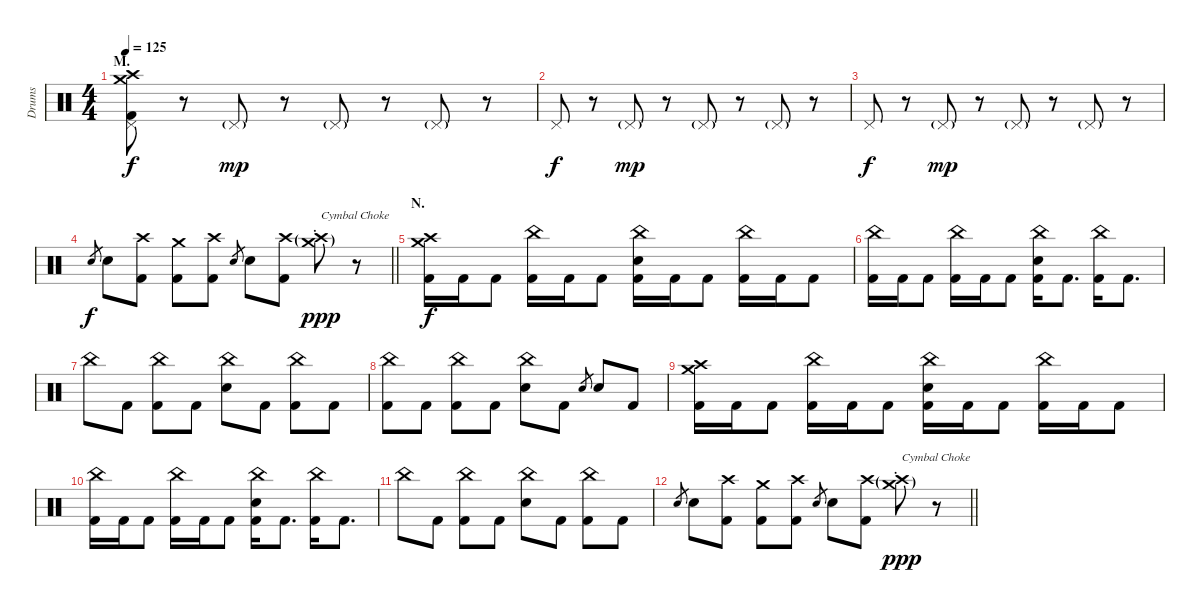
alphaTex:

\track ("Drums" "Drums") {instrument percussion}
\staff {score}
\articulation defaults
\ts (4 4)
\section ("" "M.")
\tempo 125
\clef neutral
\ks c
("Crash medium (hit)" "Crash high (hit)" "Pedal Hi-Hat (hit)" "Kick (hit) 2").8{dy f} r.8 "Pedal Hi-Hat (hit)"{g}.8{dy mp} r.8 "Pedal Hi-Hat (hit)"{g}.8 r.8 "Pedal Hi-Hat (hit)"{g}.8 r.8 |
"Pedal Hi-Hat (hit)".8{dy f} r.8 "Pedal Hi-Hat (hit)"{g}.8{dy mp} r.8 "Pedal Hi-Hat (hit)"{g}.8 r.8 "Pedal Hi-Hat (hit)"{g}.8 r.8 |
"Pedal Hi-Hat (hit)".8{dy f} r.8 "Pedal Hi-Hat (hit)"{g}.8{dy mp} r.8 "Pedal Hi-Hat (hit)"{g}.8 r.8 "Pedal Hi-Hat (hit)"{g}.8 r.8 |
\barLineRight lightlight "Electric Snare (hit)".8{gr dy f} "Electric Snare (hit)".8
("Crash high (hit)" "Kick (hit) 2").8 ("Crash medium (hit)" "Kick (hit) 2").8 ("Crash high (hit)" "Kick (hit) 2").8 "Electric Snare (hit)".8{gr} "Electric Snare (hit)".8 ("Crash high (hit)" "Kick (hit) 2").8 ("Crash medium (hit)"{g st} "Crash high (hit)"{g st}).8{txt "Cymbal Choke" dy ppp} r.8 |
\section ("" "N.")
("Crash medium (hit)" "Crash high (hit)" "Kick (hit) 2").16{dy f} "Kick (hit) 2".16 "Kick (hit) 2".8 ("China (hit)" "Kick (hit) 2").16 "Kick (hit) 2".16 "Kick (hit) 2".8 ("China (hit)" "Electric Snare (hit)" "Kick (hit) 2").16 "Kick (hit) 2".16 "Kick (hit) 2".8 ("China (hit)" "Kick (hit) 2").16 "Kick (hit) 2".16 "Kick (hit) 2".8 |
("China (hit)" "Kick (hit) 2").16 "Kick (hit) 2".16 "Kick (hit) 2".8 ("China (hit)" "Kick (hit) 2").16 "Kick (hit) 2".16 "Kick (hit) 2".8 ("China (hit)" "Electric Snare (hit)" "Kick (hit) 2").16 "Kick (hit) 2".8{d} ("China (hit)" "Kick (hit) 2").16 "Kick (hit) 2".8{d} |
"China (hit)".8 "Kick (hit) 2".8 ("China (hit)" "Kick (hit) 2").8 "Kick (hit) 2".8 ("China (hit)" "Electric Snare (hit)").8 "Kick (hit) 2".8 ("China (hit)" "Kick (hit) 2").8 "Kick (hit) 2".8 |
("China (hit)" "Kick (hit) 2").8 "Kick (hit) 2".8 ("China (hit)" "Kick (hit) 2").8 "Kick (hit) 2".8 ("China (hit)" "Electric Snare (hit)").8 "Kick (hit) 2".8 "Electric Snare (hit)".8{gr} "Electric Snare (hit)".8 "Kick (hit) 2".8 |
("Crash medium (hit)" "Crash high (hit)" "Kick (hit) 2").16 "Kick (hit) 2".16 "Kick (hit) 2".8 ("China (hit)" "Kick (hit) 2").16 "Kick (hit) 2".16 "Kick (hit) 2".8 ("China (hit)" "Electric Snare (hit)" "Kick (hit) 2").16 "Kick (hit) 2".16 "Kick (hit) 2".8 ("China (hit)" "Kick (hit) 2").16 "Kick (hit) 2".16 "Kick (hit) 2".8 |
("China (hit)" "Kick (hit) 2").16 "Kick (hit) 2".16 "Kick (hit) 2".8 ("China (hit)" "Kick (hit) 2").16 "Kick (hit) 2".16 "Kick (hit) 2".8 ("China (hit)" "Electric Snare (hit)" "Kick (hit) 2").16 "Kick (hit) 2".8{d} ("China (hit)" "Kick (hit) 2").16 "Kick (hit) 2".8{d} |
"China (hit)".8 "Kick (hit) 2".8 ("China (hit)" "Kick (hit) 2").8 "Kick (hit) 2".8 ("China (hit)" "Electric Snare (hit)").8 "Kick (hit) 2".8 ("China (hit)" "Kick (hit) 2").8 "Kick (hit) 2".8 |
\barLineRight lightlight "Electric Snare (hit)".8{gr} "Electric Snare (hit)".8
("Crash high (hit)" "Kick (hit) 2").8 ("Crash medium (hit)" "Kick (hit) 2").8 ("Crash high (hit)" "Kick (hit) 2").8 "Electric Snare (hit)".8{gr} "Electric Snare (hit)".8 ("Crash high (hit)" "Kick (hit) 2").8 ("Crash medium (hit)"{g st} "Crash high (hit)"{g st}).8{txt "Cymbal Choke" dy ppp} r.8
